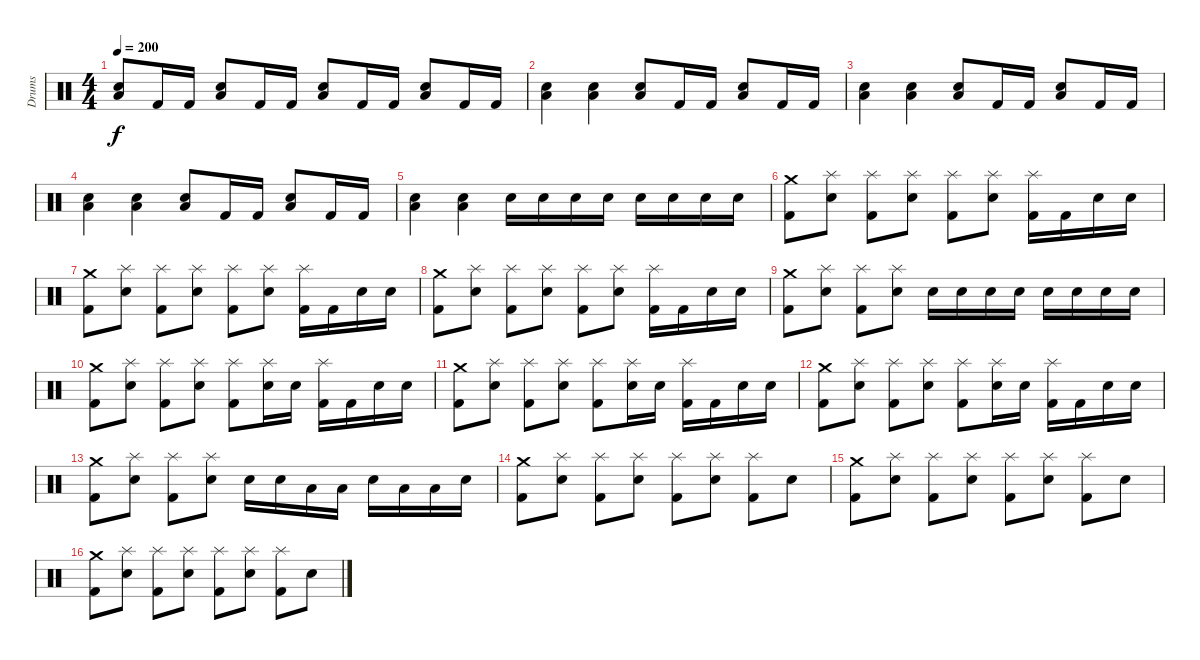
\track ("Drums" "Drums") {instrument percussion}
\staff {score}
\articulation defaults
\ts (4 4)
\tempo 200
\clef neutral
\ks c
("Low Floor Tom (hit)" "Electric Snare (hit)").8{dy f} "Kick (hit) 2".16 "Kick (hit) 2".16 ("Low Floor Tom (hit)" "Electric Snare (hit)").8 "Kick (hit) 2".16 "Kick (hit) 2".16 ("Low Floor Tom (hit)" "Electric Snare (hit)").8 "Kick (hit) 2".16 "Kick (hit) 2".16 ("Low Floor Tom (hit)" "Electric Snare (hit)").8 "Kick (hit) 2".16 "Kick (hit) 2".16 |
("Low Floor Tom (hit)" "Electric Snare (hit)").4 ("Low Floor Tom (hit)" "Electric Snare (hit)").4 ("Low Floor Tom (hit)" "Electric Snare (hit)").8 "Kick (hit) 2".16 "Kick (hit) 2".16 ("Low Floor Tom (hit)" "Electric Snare (hit)").8 "Kick (hit) 2".16 "Kick (hit) 2".16 |
("Low Floor Tom (hit)" "Electric Snare (hit)").4 ("Low Floor Tom (hit)" "Electric Snare (hit)").4 ("Low Floor Tom (hit)" "Electric Snare (hit)").8 "Kick (hit) 2".16 "Kick (hit) 2".16 ("Low Floor Tom (hit)" "Electric Snare (hit)").8 "Kick (hit) 2".16 "Kick (hit) 2".16 |
("Low Floor Tom (hit)" "Electric Snare (hit)").4 ("Low Floor Tom (hit)" "Electric Snare (hit)").4 ("Low Floor Tom (hit)" "Electric Snare (hit)").8 "Kick (hit) 2".16 "Kick (hit) 2".16 ("Low Floor Tom (hit)" "Electric Snare (hit)").8 "Kick (hit) 2".16 "Kick (hit) 2".16 |
("Low Floor Tom (hit)" "Electric Snare (hit)").4 ("Low Floor Tom (hit)" "Electric Snare (hit)").4 "Electric Snare (hit)".16 "Electric Snare (hit)".16 "Electric Snare (hit)".16 "Electric Snare (hit)".16 "Electric Snare (hit)".16 "Electric Snare (hit)".16 "Electric Snare (hit)".16 "Electric Snare (hit)".16 |
("Crash medium (hit)" "Kick (hit) 2").8 ("Splash (hit)" "Electric Snare (hit)").8 ("Splash (hit)" "Kick (hit) 2").8 ("Splash (hit)" "Electric Snare (hit)").8 ("Splash (hit)" "Kick (hit) 2").8 ("Splash (hit)" "Electric Snare (hit)").8 ("Splash (hit)" "Kick (hit) 2").16 "Kick (hit) 2".16 "Electric Snare (hit)".16 "Electric Snare (hit)".16 |
("Crash medium (hit)" "Kick (hit) 2").8 ("Splash (hit)" "Electric Snare (hit)").8 ("Splash (hit)" "Kick (hit) 2").8 ("Splash (hit)" "Electric Snare (hit)").8 ("Splash (hit)" "Kick (hit) 2").8 ("Splash (hit)" "Electric Snare (hit)").8 ("Splash (hit)" "Kick (hit) 2").16 "Kick (hit) 2".16 "Electric Snare (hit)".16 "Electric Snare (hit)".16 |
("Crash medium (hit)" "Kick (hit) 2").8 ("Splash (hit)" "Electric Snare (hit)").8 ("Splash (hit)" "Kick (hit) 2").8 ("Splash (hit)" "Electric Snare (hit)").8 ("Splash (hit)" "Kick (hit) 2").8 ("Splash (hit)" "Electric Snare (hit)").8 ("Splash (hit)" "Kick (hit) 2").16 "Kick (hit) 2".16 "Electric Snare (hit)".16 "Electric Snare (hit)".16 |
("Crash medium (hit)" "Kick (hit) 2").8 ("Splash (hit)" "Electric Snare (hit)").8 ("Splash (hit)" "Kick (hit) 2").8 ("Splash (hit)" "Electric Snare (hit)").8 "Electric Snare (hit)".16 "Electric Snare (hit)".16 "Electric Snare (hit)".16 "Electric Snare (hit)".16 "Electric Snare (hit)".16 "Electric Snare (hit)".16 "Electric Snare (hit)".16 "Electric Snare (hit)".16 |
("Crash medium (hit)" "Kick (hit) 2").8 ("Splash (hit)" "Electric Snare (hit)").8 ("Splash (hit)" "Kick (hit) 2").8 ("Splash (hit)" "Electric Snare (hit)").8 ("Splash (hit)" "Kick (hit) 2").8 ("Splash (hit)" "Electric Snare (hit)").16 "Electric Snare (hit)".16 ("Splash (hit)" "Kick (hit) 2").16 "Kick (hit) 2".16 "Electric Snare (hit)".16 "Electric Snare (hit)".16 |
("Crash medium (hit)" "Kick (hit) 2").8 ("Splash (hit)" "Electric Snare (hit)").8 ("Splash (hit)" "Kick (hit) 2").8 ("Splash (hit)" "Electric Snare (hit)").8 ("Splash (hit)" "Kick (hit) 2").8 ("Splash (hit)" "Electric Snare (hit)").16 "Electric Snare (hit)".16 ("Splash (hit)" "Kick (hit) 2").16 "Kick (hit) 2".16 "Electric Snare (hit)".16 "Electric Snare (hit)".16 |
("Crash medium (hit)" "Kick (hit) 2").8 ("Splash (hit)" "Electric Snare (hit)").8 ("Splash (hit)" "Kick (hit) 2").8 ("Splash (hit)" "Electric Snare (hit)").8 ("Splash (hit)" "Kick (hit) 2").8 ("Splash (hit)" "Electric Snare (hit)").16 "Electric Snare (hit)".16 ("Splash (hit)" "Kick (hit) 2").16 "Kick (hit) 2".16 "Electric Snare (hit)".16 "Electric Snare (hit)".16 |
("Crash medium (hit)" "Kick (hit) 2").8 ("Splash (hit)" "Electric Snare (hit)").8 ("Splash (hit)" "Kick (hit) 2").8 ("Splash (hit)" "Electric Snare (hit)").8 "Electric Snare (hit)".16 "Electric Snare (hit)".16 "Low Floor Tom (hit)".16 "Low Floor Tom (hit)".16 "Electric Snare (hit)".16 "Low Floor Tom (hit)".16 "Low Floor Tom (hit)".16 "Electric Snare (hit)".16 |
("Crash medium (hit)" "Kick (hit) 2").8 ("Splash (hit)" "Electric Snare (hit)").8 ("Splash (hit)" "Kick (hit) 2").8 ("Splash (hit)" "Electric Snare (hit)").8 ("Splash (hit)" "Kick (hit) 2").8 ("Splash (hit)" "Electric Snare (hit)").8 ("Splash (hit)" "Kick (hit) 2").8 "Electric Snare (hit)".8 |
("Crash medium (hit)" "Kick (hit) 2").8 ("Splash (hit)" "Electric Snare (hit)").8 ("Splash (hit)" "Kick (hit) 2").8 ("Splash (hit)" "Electric Snare (hit)").8 ("Splash (hit)" "Kick (hit) 2").8 ("Splash (hit)" "Electric Snare (hit)").8 ("Splash (hit)" "Kick (hit) 2").8 "Electric Snare (hit)".8 |
("Crash medium (hit)" "Kick (hit) 2").8 ("Splash (hit)" "Electric Snare (hit)").8 ("Splash (hit)" "Kick (hit) 2").8 ("Splash (hit)" "Electric Snare (hit)").8 ("Splash (hit)" "Kick (hit) 2").8 ("Splash (hit)" "Electric Snare (hit)").8 ("Splash (hit)" "Kick (hit) 2").8 "Electric Snare (hit)".8
